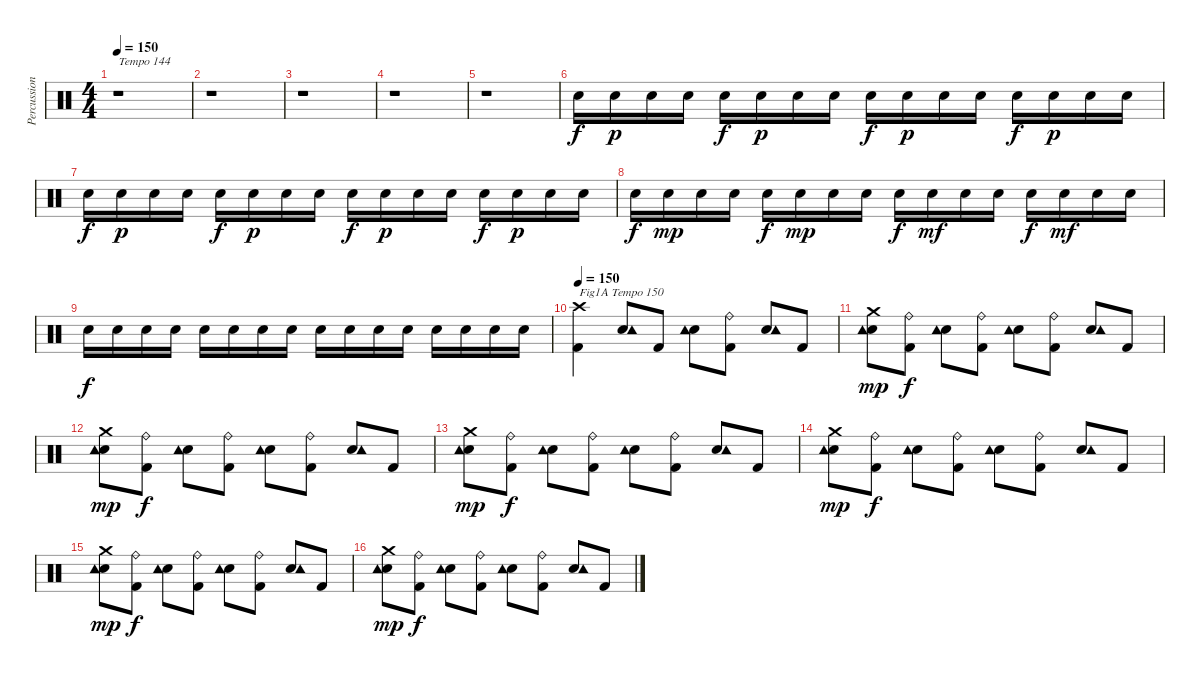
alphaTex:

\track ("Percussions" "Percussion") {instrument percussion}
\staff {score}
\articulation defaults
\ts (4 4)
\tempo 150
\tempo 144
\tempo 150
\clef neutral
\ks c
r.1{txt "Tempo 144" dy f} |
r.1 |
r.1 |
r.1 |
r.1 |
"Electric Snare (hit)".16 "Electric Snare (hit)".16{dy p} "Electric Snare (hit)".16 "Electric Snare (hit)".16 "Electric Snare (hit)".16{dy f} "Electric Snare (hit)".16{dy p} "Electric Snare (hit)".16 "Electric Snare (hit)".16 "Electric Snare (hit)".16{dy f} "Electric Snare (hit)".16{dy p} "Electric Snare (hit)".16 "Electric Snare (hit)".16 "Electric Snare (hit)".16{dy f} "Electric Snare (hit)".16{dy p} "Electric Snare (hit)".16 "Electric Snare (hit)".16 |
"Electric Snare (hit)".16{dy f} "Electric Snare (hit)".16{dy p} "Electric Snare (hit)".16 "Electric Snare (hit)".16 "Electric Snare (hit)".16{dy f} "Electric Snare (hit)".16{dy p} "Electric Snare (hit)".16 "Electric Snare (hit)".16 "Electric Snare (hit)".16{dy f} "Electric Snare (hit)".16{dy p} "Electric Snare (hit)".16 "Electric Snare (hit)".16 "Electric Snare (hit)".16{dy f} "Electric Snare (hit)".16{dy p} "Electric Snare (hit)".16 "Electric Snare (hit)".16 |
"Electric Snare (hit)".16{dy f} "Electric Snare (hit)".16{dy mp} "Electric Snare (hit)".16 "Electric Snare (hit)".16 "Electric Snare (hit)".16{dy f} "Electric Snare (hit)".16{dy mp} "Electric Snare (hit)".16 "Electric Snare (hit)".16 "Electric Snare (hit)".16{dy f} "Electric Snare (hit)".16{dy mf} "Electric Snare (hit)".16 "Electric Snare (hit)".16 "Electric Snare (hit)".16{dy f} "Electric Snare (hit)".16{dy mf} "Electric Snare (hit)".16 "Electric Snare (hit)".16 |
"Electric Snare (hit)".16{dy f} "Electric Snare (hit)".16 "Electric Snare (hit)".16 "Electric Snare (hit)".16 "Electric Snare (hit)".16 "Electric Snare (hit)".16 "Electric Snare (hit)".16 "Electric Snare (hit)".16 "Electric Snare (hit)".16 "Electric Snare (hit)".16 "Electric Snare (hit)".16 "Electric Snare (hit)".16 "Electric Snare (hit)".16 "Electric Snare (hit)".16 "Electric Snare (hit)".16 "Electric Snare (hit)".16 |
\tempo 150
("Kick (hit) 2" "Crash high (hit)").4{txt "Fig1A Tempo 150"} ("Electric Snare (hit)" "Tambourine (hit)").8 "Kick (hit) 2".8 ("Electric Snare (hit)" "Tambourine (hit)").8 ("Kick (hit) 2" "Ride (bell)").8 ("Electric Snare (hit)" "Tambourine (hit)").8 "Kick (hit) 2".8 |
("Electric Snare (hit)" "Crash medium (hit)" "Tambourine (hit)").8{dy mp} ("Kick (hit) 2" "Ride (bell)").8{dy f} ("Electric Snare (hit)" "Tambourine (hit)").8 ("Kick (hit) 2" "Ride (bell)").8 ("Electric Snare (hit)" "Tambourine (hit)").8 ("Kick (hit) 2" "Ride (bell)").8 ("Electric Snare (hit)" "Tambourine (hit)").8 "Kick (hit) 2".8 |
("Electric Snare (hit)" "Crash medium (hit)" "Tambourine (hit)").8{dy mp} ("Kick (hit) 2" "Ride (bell)").8{dy f} ("Electric Snare (hit)" "Tambourine (hit)").8 ("Kick (hit) 2" "Ride (bell)").8 ("Electric Snare (hit)" "Tambourine (hit)").8 ("Kick (hit) 2" "Ride (bell)").8 ("Electric Snare (hit)" "Tambourine (hit)").8 "Kick (hit) 2".8 |
("Electric Snare (hit)" "Crash medium (hit)" "Tambourine (hit)").8{dy mp} ("Kick (hit) 2" "Ride (bell)").8{dy f} ("Electric Snare (hit)" "Tambourine (hit)").8 ("Kick (hit) 2" "Ride (bell)").8 ("Electric Snare (hit)" "Tambourine (hit)").8 ("Kick (hit) 2" "Ride (bell)").8 ("Electric Snare (hit)" "Tambourine (hit)").8 "Kick (hit) 2".8 |
("Electric Snare (hit)" "Crash medium (hit)" "Tambourine (hit)").8{dy mp} ("Kick (hit) 2" "Ride (bell)").8{dy f} ("Electric Snare (hit)" "Tambourine (hit)").8 ("Kick (hit) 2" "Ride (bell)").8 ("Electric Snare (hit)" "Tambourine (hit)").8 ("Kick (hit) 2" "Ride (bell)").8 ("Electric Snare (hit)" "Tambourine (hit)").8 "Kick (hit) 2".8 |
("Electric Snare (hit)" "Crash medium (hit)" "Tambourine (hit)").8{dy mp} ("Kick (hit) 2" "Ride (bell)").8{dy f} ("Electric Snare (hit)" "Tambourine (hit)").8 ("Kick (hit) 2" "Ride (bell)").8 ("Electric Snare (hit)" "Tambourine (hit)").8 ("Kick (hit) 2" "Ride (bell)").8 ("Electric Snare (hit)" "Tambourine (hit)").8 "Kick (hit) 2".8 |
("Electric Snare (hit)" "Crash medium (hit)" "Tambourine (hit)").8{dy mp} ("Kick (hit) 2" "Ride (bell)").8{dy f} ("Electric Snare (hit)" "Tambourine (hit)").8 ("Kick (hit) 2" "Ride (bell)").8 ("Electric Snare (hit)" "Tambourine (hit)").8 ("Kick (hit) 2" "Ride (bell)").8 ("Electric Snare (hit)" "Tambourine (hit)").8 "Kick (hit) 2".8
